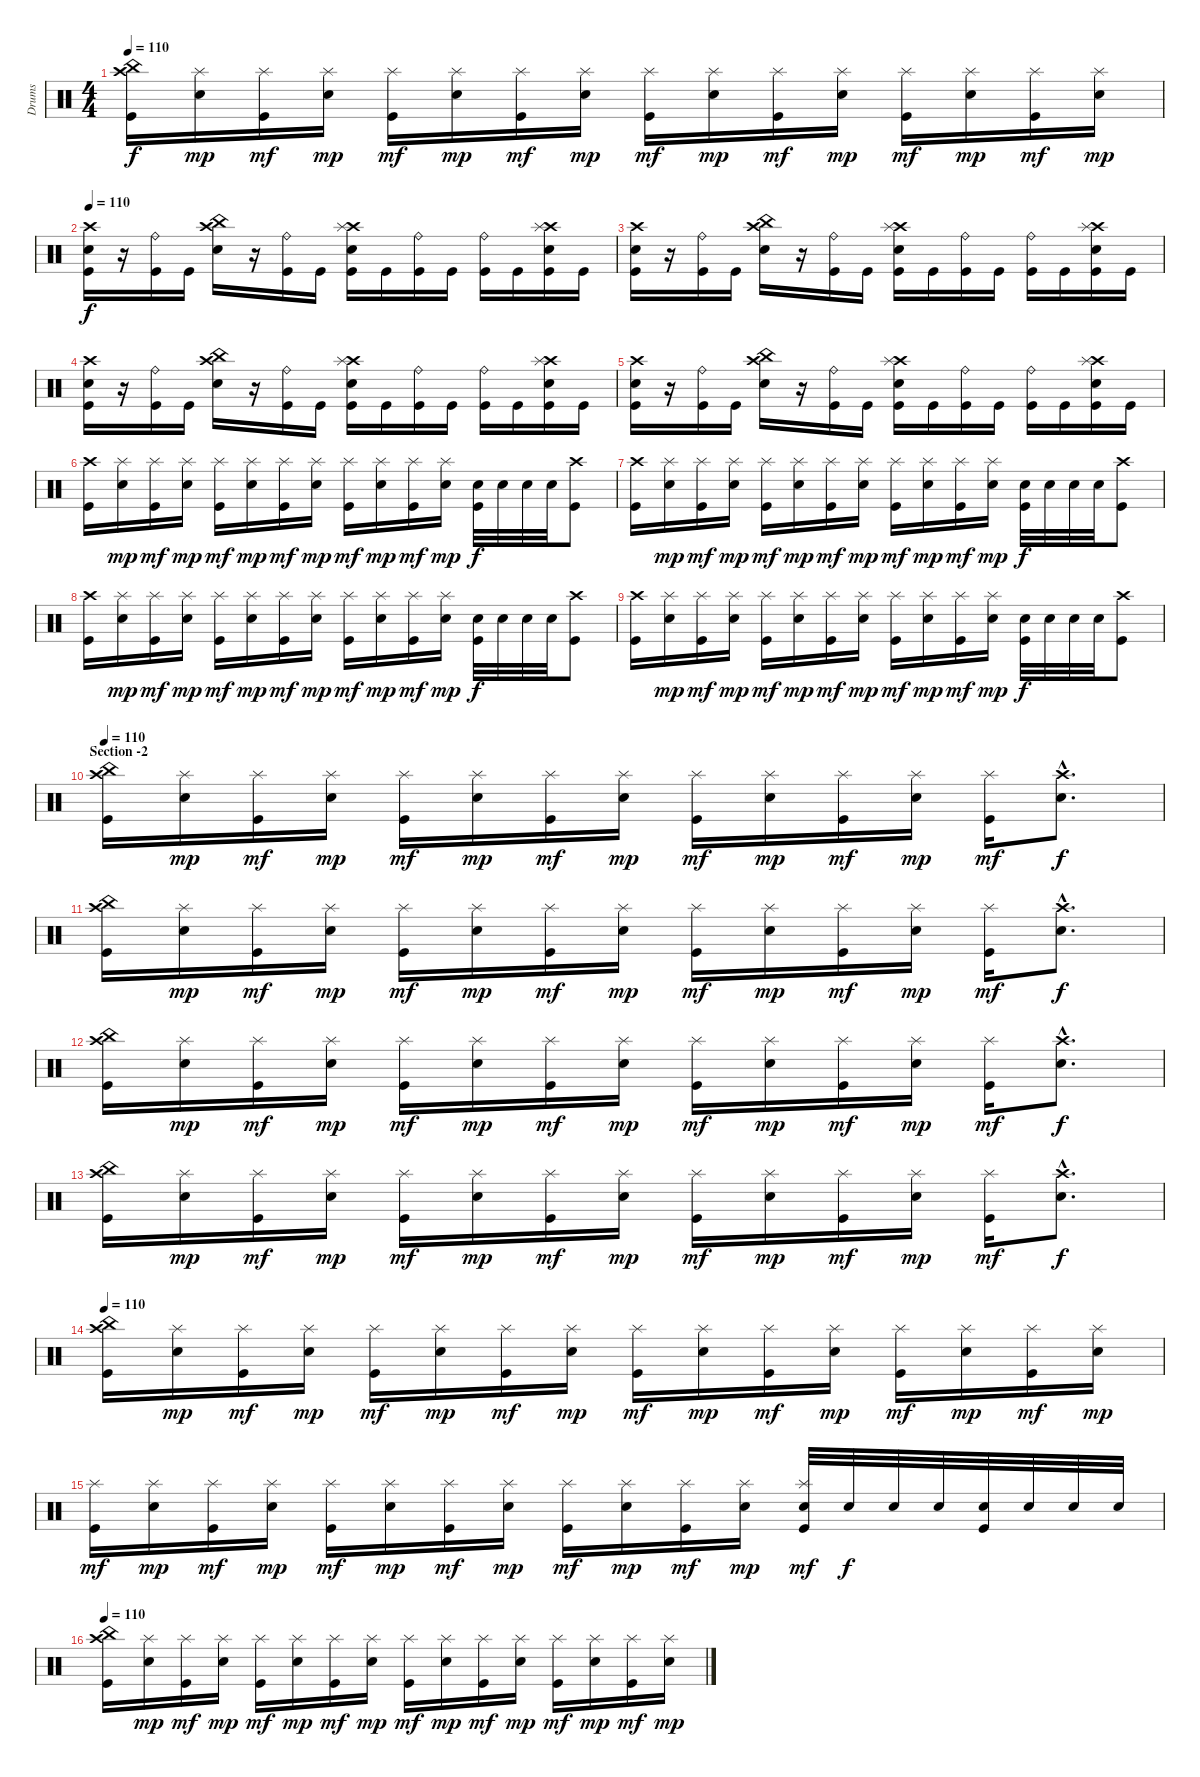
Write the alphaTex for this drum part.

\track ("Drums" "Drums") {instrument percussion}
\staff {score}
\articulation defaults
\ts (4 4)
\tempo 110
\clef neutral
\ks c
("China (hit)" "Crash high (hit)" "Kick (hit)").16{dy f} ("Splash (hit)" "Electric Snare (hit)").16{dy mp} ("Splash (hit)" "Kick (hit)").16{dy mf} ("Splash (hit)" "Electric Snare (hit)").16{dy mp} ("Splash (hit)" "Kick (hit)").16{dy mf} ("Splash (hit)" "Electric Snare (hit)").16{dy mp} ("Splash (hit)" "Kick (hit)").16{dy mf} ("Splash (hit)" "Electric Snare (hit)").16{dy mp} ("Splash (hit)" "Kick (hit)").16{dy mf} ("Splash (hit)" "Electric Snare (hit)").16{dy mp} ("Splash (hit)" "Kick (hit)").16{dy mf} ("Splash (hit)" "Electric Snare (hit)").16{dy mp} ("Splash (hit)" "Kick (hit)").16{dy mf} ("Splash (hit)" "Electric Snare (hit)").16{dy mp} ("Splash (hit)" "Kick (hit)").16{dy mf} ("Splash (hit)" "Electric Snare (hit)").16{dy mp} |
\tempo 110
("Crash high (hit)" "Electric Snare (hit)" "Kick (hit)").16{dy f} r.16 ("Ride (bell)" "Kick (hit)").16 "Kick (hit)".16 ("Crash high (hit)" "China (hit)" "Electric Snare (hit)").16 r.16 ("Ride (bell)" "Kick (hit)").16 "Kick (hit)".16 ("Crash high (hit)" "Splash (hit)" "Electric Snare (hit)" "Kick (hit)").16 "Kick (hit)".16 ("Ride (bell)" "Kick (hit)").16 "Kick (hit)".16 ("Ride (bell)" "Kick (hit)").16 "Kick (hit)".16 ("Crash high (hit)" "Splash (hit)" "Electric Snare (hit)" "Kick (hit)").16 "Kick (hit)".16 |
("Crash high (hit)" "Electric Snare (hit)" "Kick (hit)").16 r.16 ("Ride (bell)" "Kick (hit)").16 "Kick (hit)".16 ("Crash high (hit)" "China (hit)" "Electric Snare (hit)").16 r.16 ("Ride (bell)" "Kick (hit)").16 "Kick (hit)".16 ("Crash high (hit)" "Splash (hit)" "Electric Snare (hit)" "Kick (hit)").16 "Kick (hit)".16 ("Ride (bell)" "Kick (hit)").16 "Kick (hit)".16 ("Ride (bell)" "Kick (hit)").16 "Kick (hit)".16 ("Crash high (hit)" "Splash (hit)" "Electric Snare (hit)" "Kick (hit)").16 "Kick (hit)".16 |
("Crash high (hit)" "Electric Snare (hit)" "Kick (hit)").16 r.16 ("Ride (bell)" "Kick (hit)").16 "Kick (hit)".16 ("Crash high (hit)" "China (hit)" "Electric Snare (hit)").16 r.16 ("Ride (bell)" "Kick (hit)").16 "Kick (hit)".16 ("Crash high (hit)" "Splash (hit)" "Electric Snare (hit)" "Kick (hit)").16 "Kick (hit)".16 ("Ride (bell)" "Kick (hit)").16 "Kick (hit)".16 ("Ride (bell)" "Kick (hit)").16 "Kick (hit)".16 ("Crash high (hit)" "Splash (hit)" "Electric Snare (hit)" "Kick (hit)").16 "Kick (hit)".16 |
("Crash high (hit)" "Electric Snare (hit)" "Kick (hit)").16 r.16 ("Ride (bell)" "Kick (hit)").16 "Kick (hit)".16 ("Crash high (hit)" "China (hit)" "Electric Snare (hit)").16 r.16 ("Ride (bell)" "Kick (hit)").16 "Kick (hit)".16 ("Crash high (hit)" "Splash (hit)" "Electric Snare (hit)" "Kick (hit)").16 "Kick (hit)".16 ("Ride (bell)" "Kick (hit)").16 "Kick (hit)".16 ("Ride (bell)" "Kick (hit)").16 "Kick (hit)".16 ("Crash high (hit)" "Splash (hit)" "Electric Snare (hit)" "Kick (hit)").16 "Kick (hit)".16 |
("Crash high (hit)" "Kick (hit)").16 ("Splash (hit)" "Electric Snare (hit)").16{dy mp} ("Splash (hit)" "Kick (hit)").16{dy mf} ("Splash (hit)" "Electric Snare (hit)").16{dy mp} ("Splash (hit)" "Kick (hit)").16{dy mf} ("Splash (hit)" "Electric Snare (hit)").16{dy mp} ("Splash (hit)" "Kick (hit)").16{dy mf} ("Splash (hit)" "Electric Snare (hit)").16{dy mp} ("Splash (hit)" "Kick (hit)").16{dy mf} ("Splash (hit)" "Electric Snare (hit)").16{dy mp} ("Splash (hit)" "Kick (hit)").16{dy mf} ("Splash (hit)" "Electric Snare (hit)").16{dy mp} ("Electric Snare (hit)" "Kick (hit)").32{dy f} "Electric Snare (hit)".32 "Electric Snare (hit)".32 "Electric Snare (hit)".32 ("Crash high (hit)" "Kick (hit)").8 |
("Crash high (hit)" "Kick (hit)").16 ("Splash (hit)" "Electric Snare (hit)").16{dy mp} ("Splash (hit)" "Kick (hit)").16{dy mf} ("Splash (hit)" "Electric Snare (hit)").16{dy mp} ("Splash (hit)" "Kick (hit)").16{dy mf} ("Splash (hit)" "Electric Snare (hit)").16{dy mp} ("Splash (hit)" "Kick (hit)").16{dy mf} ("Splash (hit)" "Electric Snare (hit)").16{dy mp} ("Splash (hit)" "Kick (hit)").16{dy mf} ("Splash (hit)" "Electric Snare (hit)").16{dy mp} ("Splash (hit)" "Kick (hit)").16{dy mf} ("Splash (hit)" "Electric Snare (hit)").16{dy mp} ("Electric Snare (hit)" "Kick (hit)").32{dy f} "Electric Snare (hit)".32 "Electric Snare (hit)".32 "Electric Snare (hit)".32 ("Crash high (hit)" "Kick (hit)").8 |
("Crash high (hit)" "Kick (hit)").16 ("Splash (hit)" "Electric Snare (hit)").16{dy mp} ("Splash (hit)" "Kick (hit)").16{dy mf} ("Splash (hit)" "Electric Snare (hit)").16{dy mp} ("Splash (hit)" "Kick (hit)").16{dy mf} ("Splash (hit)" "Electric Snare (hit)").16{dy mp} ("Splash (hit)" "Kick (hit)").16{dy mf} ("Splash (hit)" "Electric Snare (hit)").16{dy mp} ("Splash (hit)" "Kick (hit)").16{dy mf} ("Splash (hit)" "Electric Snare (hit)").16{dy mp} ("Splash (hit)" "Kick (hit)").16{dy mf} ("Splash (hit)" "Electric Snare (hit)").16{dy mp} ("Electric Snare (hit)" "Kick (hit)").32{dy f} "Electric Snare (hit)".32 "Electric Snare (hit)".32 "Electric Snare (hit)".32 ("Crash high (hit)" "Kick (hit)").8 |
("Crash high (hit)" "Kick (hit)").16 ("Splash (hit)" "Electric Snare (hit)").16{dy mp} ("Splash (hit)" "Kick (hit)").16{dy mf} ("Splash (hit)" "Electric Snare (hit)").16{dy mp} ("Splash (hit)" "Kick (hit)").16{dy mf} ("Splash (hit)" "Electric Snare (hit)").16{dy mp} ("Splash (hit)" "Kick (hit)").16{dy mf} ("Splash (hit)" "Electric Snare (hit)").16{dy mp} ("Splash (hit)" "Kick (hit)").16{dy mf} ("Splash (hit)" "Electric Snare (hit)").16{dy mp} ("Splash (hit)" "Kick (hit)").16{dy mf} ("Splash (hit)" "Electric Snare (hit)").16{dy mp} ("Electric Snare (hit)" "Kick (hit)").32{dy f} "Electric Snare (hit)".32 "Electric Snare (hit)".32 "Electric Snare (hit)".32 ("Crash high (hit)" "Kick (hit)").8 |
\section ("" "Section -2")
\tempo 110
("China (hit)" "Crash high (hit)" "Kick (hit)").16 ("Splash (hit)" "Electric Snare (hit)").16{dy mp} ("Splash (hit)" "Kick (hit)").16{dy mf} ("Splash (hit)" "Electric Snare (hit)").16{dy mp} ("Splash (hit)" "Kick (hit)").16{dy mf} ("Splash (hit)" "Electric Snare (hit)").16{dy mp} ("Splash (hit)" "Kick (hit)").16{dy mf} ("Splash (hit)" "Electric Snare (hit)").16{dy mp} ("Splash (hit)" "Kick (hit)").16{dy mf} ("Splash (hit)" "Electric Snare (hit)").16{dy mp} ("Splash (hit)" "Kick (hit)").16{dy mf} ("Splash (hit)" "Electric Snare (hit)").16{dy mp} ("Splash (hit)" "Kick (hit)").16{dy mf} ("Crash high (hit)"{hac} "Electric Snare (hit)"{hac}).8{d dy f} |
("China (hit)" "Crash high (hit)" "Kick (hit)").16 ("Splash (hit)" "Electric Snare (hit)").16{dy mp} ("Splash (hit)" "Kick (hit)").16{dy mf} ("Splash (hit)" "Electric Snare (hit)").16{dy mp} ("Splash (hit)" "Kick (hit)").16{dy mf} ("Splash (hit)" "Electric Snare (hit)").16{dy mp} ("Splash (hit)" "Kick (hit)").16{dy mf} ("Splash (hit)" "Electric Snare (hit)").16{dy mp} ("Splash (hit)" "Kick (hit)").16{dy mf} ("Splash (hit)" "Electric Snare (hit)").16{dy mp} ("Splash (hit)" "Kick (hit)").16{dy mf} ("Splash (hit)" "Electric Snare (hit)").16{dy mp} ("Splash (hit)" "Kick (hit)").16{dy mf} ("Crash high (hit)"{hac} "Electric Snare (hit)"{hac}).8{d dy f} |
("China (hit)" "Crash high (hit)" "Kick (hit)").16 ("Splash (hit)" "Electric Snare (hit)").16{dy mp} ("Splash (hit)" "Kick (hit)").16{dy mf} ("Splash (hit)" "Electric Snare (hit)").16{dy mp} ("Splash (hit)" "Kick (hit)").16{dy mf} ("Splash (hit)" "Electric Snare (hit)").16{dy mp} ("Splash (hit)" "Kick (hit)").16{dy mf} ("Splash (hit)" "Electric Snare (hit)").16{dy mp} ("Splash (hit)" "Kick (hit)").16{dy mf} ("Splash (hit)" "Electric Snare (hit)").16{dy mp} ("Splash (hit)" "Kick (hit)").16{dy mf} ("Splash (hit)" "Electric Snare (hit)").16{dy mp} ("Splash (hit)" "Kick (hit)").16{dy mf} ("Crash high (hit)"{hac} "Electric Snare (hit)"{hac}).8{d dy f} |
("China (hit)" "Crash high (hit)" "Kick (hit)").16 ("Splash (hit)" "Electric Snare (hit)").16{dy mp} ("Splash (hit)" "Kick (hit)").16{dy mf} ("Splash (hit)" "Electric Snare (hit)").16{dy mp} ("Splash (hit)" "Kick (hit)").16{dy mf} ("Splash (hit)" "Electric Snare (hit)").16{dy mp} ("Splash (hit)" "Kick (hit)").16{dy mf} ("Splash (hit)" "Electric Snare (hit)").16{dy mp} ("Splash (hit)" "Kick (hit)").16{dy mf} ("Splash (hit)" "Electric Snare (hit)").16{dy mp} ("Splash (hit)" "Kick (hit)").16{dy mf} ("Splash (hit)" "Electric Snare (hit)").16{dy mp} ("Splash (hit)" "Kick (hit)").16{dy mf} ("Crash high (hit)"{hac} "Electric Snare (hit)"{hac}).8{d dy f} |
\tempo 110
("China (hit)" "Crash high (hit)" "Kick (hit)").16 ("Splash (hit)" "Electric Snare (hit)").16{dy mp} ("Splash (hit)" "Kick (hit)").16{dy mf} ("Splash (hit)" "Electric Snare (hit)").16{dy mp} ("Splash (hit)" "Kick (hit)").16{dy mf} ("Splash (hit)" "Electric Snare (hit)").16{dy mp} ("Splash (hit)" "Kick (hit)").16{dy mf} ("Splash (hit)" "Electric Snare (hit)").16{dy mp} ("Splash (hit)" "Kick (hit)").16{dy mf} ("Splash (hit)" "Electric Snare (hit)").16{dy mp} ("Splash (hit)" "Kick (hit)").16{dy mf} ("Splash (hit)" "Electric Snare (hit)").16{dy mp} ("Splash (hit)" "Kick (hit)").16{dy mf} ("Splash (hit)" "Electric Snare (hit)").16{dy mp} ("Splash (hit)" "Kick (hit)").16{dy mf} ("Splash (hit)" "Electric Snare (hit)").16{dy mp} |
("Splash (hit)" "Kick (hit)").16{dy mf} ("Splash (hit)" "Electric Snare (hit)").16{dy mp} ("Splash (hit)" "Kick (hit)").16{dy mf} ("Splash (hit)" "Electric Snare (hit)").16{dy mp} ("Splash (hit)" "Kick (hit)").16{dy mf} ("Splash (hit)" "Electric Snare (hit)").16{dy mp} ("Splash (hit)" "Kick (hit)").16{dy mf} ("Splash (hit)" "Electric Snare (hit)").16{dy mp} ("Splash (hit)" "Kick (hit)").16{dy mf} ("Splash (hit)" "Electric Snare (hit)").16{dy mp} ("Splash (hit)" "Kick (hit)").16{dy mf} ("Splash (hit)" "Electric Snare (hit)").16{dy mp} ("Splash (hit)" "Electric Snare (hit)" "Kick (hit)").32{dy mf} "Electric Snare (hit)".32{dy f} "Electric Snare (hit)".32 "Electric Snare (hit)".32 ("Electric Snare (hit)" "Kick (hit)").32 "Electric Snare (hit)".32 "Electric Snare (hit)".32 "Electric Snare (hit)".32 |
\tempo 110
("China (hit)" "Crash high (hit)" "Kick (hit)").16 ("Splash (hit)" "Electric Snare (hit)").16{dy mp} ("Splash (hit)" "Kick (hit)").16{dy mf} ("Splash (hit)" "Electric Snare (hit)").16{dy mp} ("Splash (hit)" "Kick (hit)").16{dy mf} ("Splash (hit)" "Electric Snare (hit)").16{dy mp} ("Splash (hit)" "Kick (hit)").16{dy mf} ("Splash (hit)" "Electric Snare (hit)").16{dy mp} ("Splash (hit)" "Kick (hit)").16{dy mf} ("Splash (hit)" "Electric Snare (hit)").16{dy mp} ("Splash (hit)" "Kick (hit)").16{dy mf} ("Splash (hit)" "Electric Snare (hit)").16{dy mp} ("Splash (hit)" "Kick (hit)").16{dy mf} ("Splash (hit)" "Electric Snare (hit)").16{dy mp} ("Splash (hit)" "Kick (hit)").16{dy mf} ("Splash (hit)" "Electric Snare (hit)").16{dy mp}
